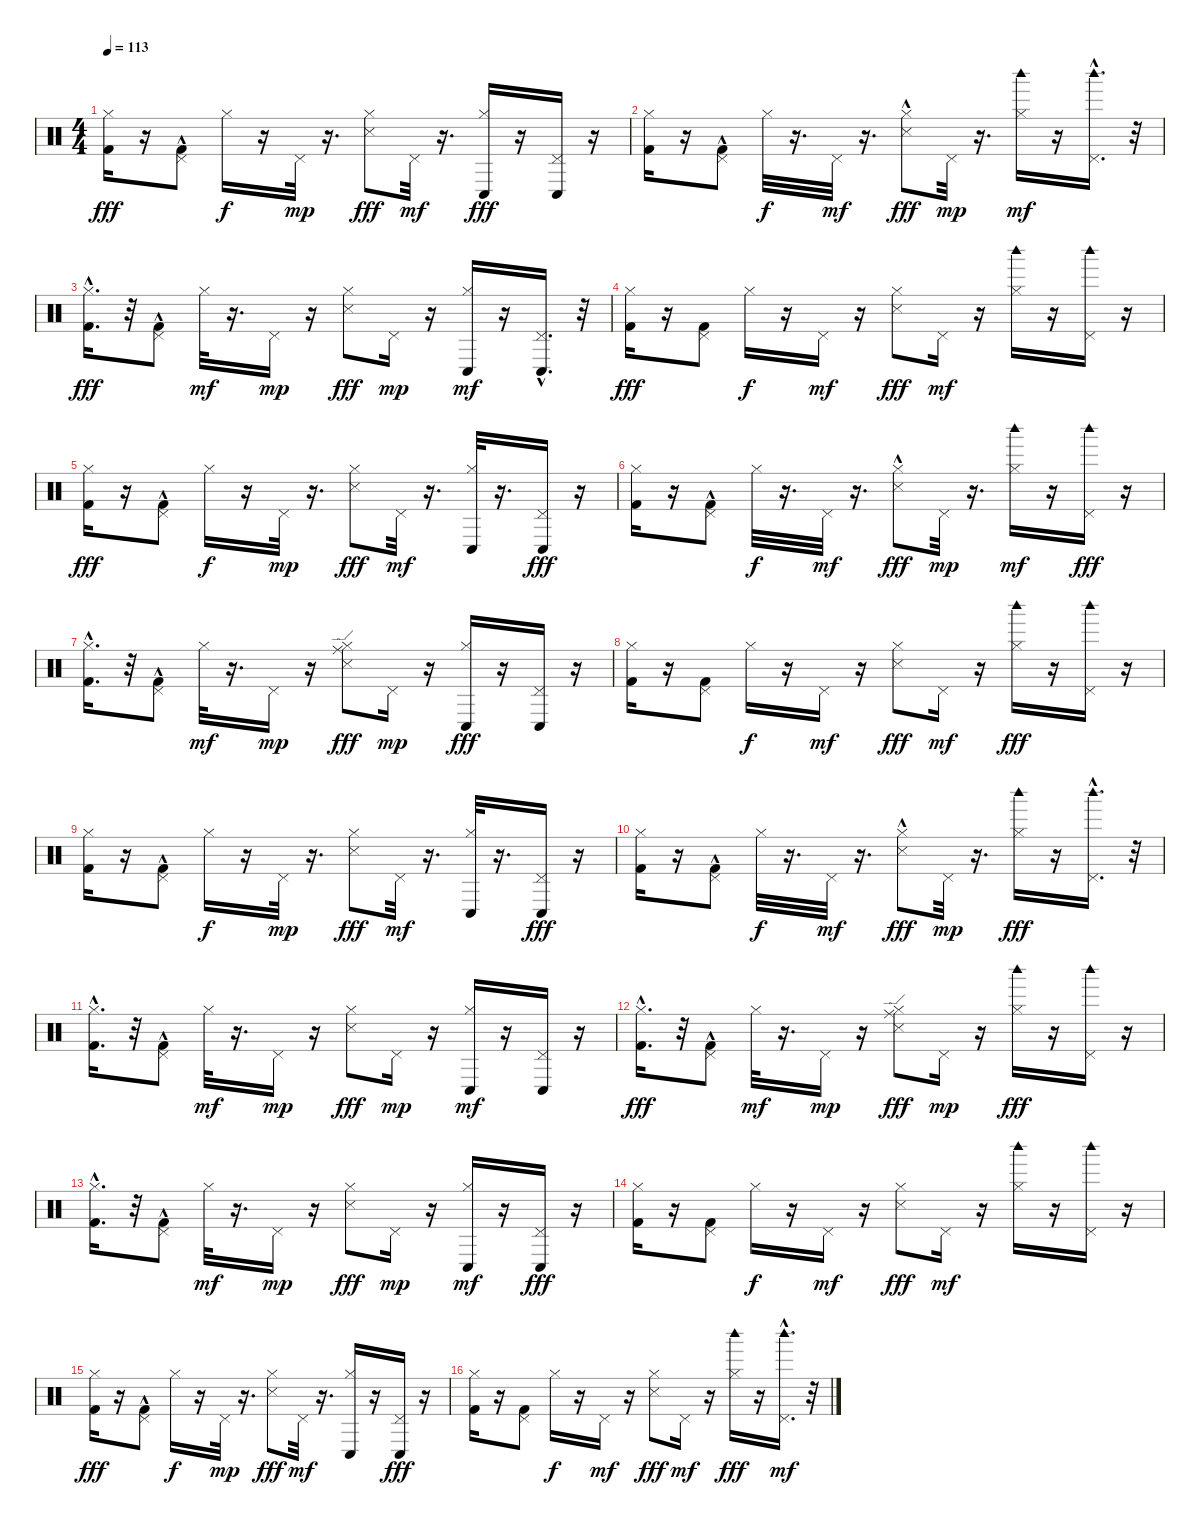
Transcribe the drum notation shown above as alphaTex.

\track "" {instrument percussion}
\staff {score}
\articulation defaults
\ts (4 4)
\tempo 113
\clef neutral
\ks c
("Hi-Hat (closed)" "Kick (hit) 2").16{dy fff} r.16 ("Pedal Hi-Hat (hit)" "Kick (hit) 2"{hac}).8 "Hi-Hat (closed)".16{dy f} r.16 "Pedal Hi-Hat (hit)".32{dy mp} r.16{d} ("Hi-Hat (closed)" "Snare (side stick) 3").8{dy fff} "Pedal Hi-Hat (hit)".32{dy mf} r.16{d} ("Hi-Hat (closed)" "Conga low (hit)").16{dy fff} r.16 ("Pedal Hi-Hat (hit)" "Conga low (hit)").16 r.16 |
("Hi-Hat (closed)" "Kick (hit) 2").16 r.16 ("Pedal Hi-Hat (hit)" "Kick (hit) 2"{hac}).8 "Hi-Hat (closed)".32{dy f} r.16{d} "Pedal Hi-Hat (hit)".32{dy mf} r.16{d} ("Hi-Hat (closed)" "Snare (side stick) 3"{hac}).8{dy fff} "Pedal Hi-Hat (hit)".32{dy mp} r.16{d} ("Woodblock high (hit)" "Hi-Hat (closed)").16{dy mf} r.16 ("Woodblock high (hit)"{hac} "Pedal Hi-Hat (hit)").16{d} r.32 |
("Hi-Hat (closed)" "Kick (hit) 2"{hac}).16{d dy fff} r.32 ("Pedal Hi-Hat (hit)" "Kick (hit) 2"{hac}).8 "Hi-Hat (closed)".32{dy mf} r.16{d} "Pedal Hi-Hat (hit)".16{dy mp} r.16 ("Hi-Hat (closed)" "Snare (side stick) 3").8{dy fff} "Pedal Hi-Hat (hit)".16{dy mp} r.16 ("Conga low (hit)" "Hi-Hat (closed)").16{dy mf} r.16 ("Conga low (hit)"{hac} "Pedal Hi-Hat (hit)").16{d} r.32 |
("Hi-Hat (closed)" "Kick (hit) 2").16{dy fff} r.16 ("Pedal Hi-Hat (hit)" "Kick (hit) 2").8 "Hi-Hat (closed)".16{dy f} r.16 "Pedal Hi-Hat (hit)".16{dy mf} r.16 ("Hi-Hat (closed)" "Snare (side stick) 3").8{dy fff} "Pedal Hi-Hat (hit)".16{dy mf} r.16 ("Woodblock high (hit)" "Hi-Hat (closed)").16 r.16 ("Woodblock high (hit)" "Pedal Hi-Hat (hit)").16 r.16 |
("Hi-Hat (closed)" "Kick (hit) 2").16{dy fff} r.16 ("Pedal Hi-Hat (hit)" "Kick (hit) 2"{hac}).8 "Hi-Hat (closed)".16{dy f} r.16 "Pedal Hi-Hat (hit)".32{dy mp} r.16{d} ("Hi-Hat (closed)" "Snare (side stick) 3").8{dy fff} "Pedal Hi-Hat (hit)".32{dy mf} r.16{d} ("Conga low (hit)" "Hi-Hat (closed)").32 r.16{d} ("Pedal Hi-Hat (hit)" "Conga low (hit)").16{dy fff} r.16 |
("Hi-Hat (closed)" "Kick (hit) 2").16 r.16 ("Pedal Hi-Hat (hit)" "Kick (hit) 2"{hac}).8 "Hi-Hat (closed)".32{dy f} r.16{d} "Pedal Hi-Hat (hit)".32{dy mf} r.16{d} ("Hi-Hat (closed)" "Snare (side stick) 3"{hac}).8{dy fff} "Pedal Hi-Hat (hit)".32{dy mp} r.16{d} ("Woodblock high (hit)" "Hi-Hat (closed)").16{dy mf} r.16 ("Pedal Hi-Hat (hit)" "Woodblock high (hit)").16{dy fff} r.16 |
("Hi-Hat (closed)" "Kick (hit) 2"{hac}).16{d} r.32 ("Pedal Hi-Hat (hit)" "Kick (hit) 2"{hac}).8 "Hi-Hat (closed)".32{dy mf} r.16{d} "Pedal Hi-Hat (hit)".16{dy mp} r.16 ("Ride (edge)" "Hi-Hat (closed)" "Snare (side stick) 3").8{dy fff} "Pedal Hi-Hat (hit)".16{dy mp} r.16 ("Hi-Hat (closed)" "Conga low (hit)").16{dy fff} r.16 ("Pedal Hi-Hat (hit)" "Conga low (hit)").16 r.16 |
("Hi-Hat (closed)" "Kick (hit) 2").16 r.16 ("Pedal Hi-Hat (hit)" "Kick (hit) 2").8 "Hi-Hat (closed)".16{dy f} r.16 "Pedal Hi-Hat (hit)".16{dy mf} r.16 ("Hi-Hat (closed)" "Snare (side stick) 3").8{dy fff} "Pedal Hi-Hat (hit)".16{dy mf} r.16 ("Hi-Hat (closed)" "Woodblock high (hit)").16{dy fff} r.16 ("Pedal Hi-Hat (hit)" "Woodblock high (hit)").16 r.16 |
("Hi-Hat (closed)" "Kick (hit) 2").16 r.16 ("Pedal Hi-Hat (hit)" "Kick (hit) 2"{hac}).8 "Hi-Hat (closed)".16{dy f} r.16 "Pedal Hi-Hat (hit)".32{dy mp} r.16{d} ("Hi-Hat (closed)" "Snare (side stick) 3").8{dy fff} "Pedal Hi-Hat (hit)".32{dy mf} r.16{d} ("Conga low (hit)" "Hi-Hat (closed)").32 r.16{d} ("Pedal Hi-Hat (hit)" "Conga low (hit)").16{dy fff} r.16 |
("Hi-Hat (closed)" "Kick (hit) 2").16 r.16 ("Pedal Hi-Hat (hit)" "Kick (hit) 2"{hac}).8 "Hi-Hat (closed)".32{dy f} r.16{d} "Pedal Hi-Hat (hit)".32{dy mf} r.16{d} ("Hi-Hat (closed)" "Snare (side stick) 3"{hac}).8{dy fff} "Pedal Hi-Hat (hit)".32{dy mp} r.16{d} ("Hi-Hat (closed)" "Woodblock high (hit)").16{dy fff} r.16 ("Pedal Hi-Hat (hit)" "Woodblock high (hit)"{hac}).16{d} r.32 |
("Hi-Hat (closed)" "Kick (hit) 2"{hac}).16{d} r.32 ("Pedal Hi-Hat (hit)" "Kick (hit) 2"{hac}).8 "Hi-Hat (closed)".32{dy mf} r.16{d} "Pedal Hi-Hat (hit)".16{dy mp} r.16 ("Hi-Hat (closed)" "Snare (side stick) 3").8{dy fff} "Pedal Hi-Hat (hit)".16{dy mp} r.16 ("Conga low (hit)" "Hi-Hat (closed)").16{dy mf} r.16 ("Conga low (hit)" "Pedal Hi-Hat (hit)").16 r.16 |
("Hi-Hat (closed)" "Kick (hit) 2"{hac}).16{d dy fff} r.32 ("Pedal Hi-Hat (hit)" "Kick (hit) 2"{hac}).8 "Hi-Hat (closed)".32{dy mf} r.16{d} "Pedal Hi-Hat (hit)".16{dy mp} r.16 ("Ride (edge)" "Hi-Hat (closed)" "Snare (side stick) 3").8{dy fff} "Pedal Hi-Hat (hit)".16{dy mp} r.16 ("Hi-Hat (closed)" "Woodblock high (hit)").16{dy fff} r.16 ("Pedal Hi-Hat (hit)" "Woodblock high (hit)").16 r.16 |
("Hi-Hat (closed)" "Kick (hit) 2"{hac}).16{d} r.32 ("Pedal Hi-Hat (hit)" "Kick (hit) 2"{hac}).8 "Hi-Hat (closed)".32{dy mf} r.16{d} "Pedal Hi-Hat (hit)".16{dy mp} r.16 ("Hi-Hat (closed)" "Snare (side stick) 3").8{dy fff} "Pedal Hi-Hat (hit)".16{dy mp} r.16 ("Conga low (hit)" "Hi-Hat (closed)").16{dy mf} r.16 ("Pedal Hi-Hat (hit)" "Conga low (hit)").16{dy fff} r.16 |
("Hi-Hat (closed)" "Kick (hit) 2").16 r.16 ("Pedal Hi-Hat (hit)" "Kick (hit) 2").8 "Hi-Hat (closed)".16{dy f} r.16 "Pedal Hi-Hat (hit)".16{dy mf} r.16 ("Hi-Hat (closed)" "Snare (side stick) 3").8{dy fff} "Pedal Hi-Hat (hit)".16{dy mf} r.16 ("Woodblock high (hit)" "Hi-Hat (closed)").16 r.16 ("Woodblock high (hit)" "Pedal Hi-Hat (hit)").16 r.16 |
("Hi-Hat (closed)" "Kick (hit) 2").16{dy fff} r.16 ("Pedal Hi-Hat (hit)" "Kick (hit) 2"{hac}).8 "Hi-Hat (closed)".16{dy f} r.16 "Pedal Hi-Hat (hit)".32{dy mp} r.16{d} ("Hi-Hat (closed)" "Snare (side stick) 3").8{dy fff} "Pedal Hi-Hat (hit)".32{dy mf} r.16{d} ("Conga low (hit)" "Hi-Hat (closed)").16 r.16 ("Pedal Hi-Hat (hit)" "Conga low (hit)").16{dy fff} r.16 |
("Hi-Hat (closed)" "Kick (hit) 2").16 r.16 ("Pedal Hi-Hat (hit)" "Kick (hit) 2").8 "Hi-Hat (closed)".16{dy f} r.16 "Pedal Hi-Hat (hit)".16{dy mf} r.16 ("Hi-Hat (closed)" "Snare (side stick) 3").8{dy fff} "Pedal Hi-Hat (hit)".16{dy mf} r.16 ("Hi-Hat (closed)" "Woodblock high (hit)").16{dy fff} r.16 ("Woodblock high (hit)"{hac} "Pedal Hi-Hat (hit)").16{d dy mf} r.32
